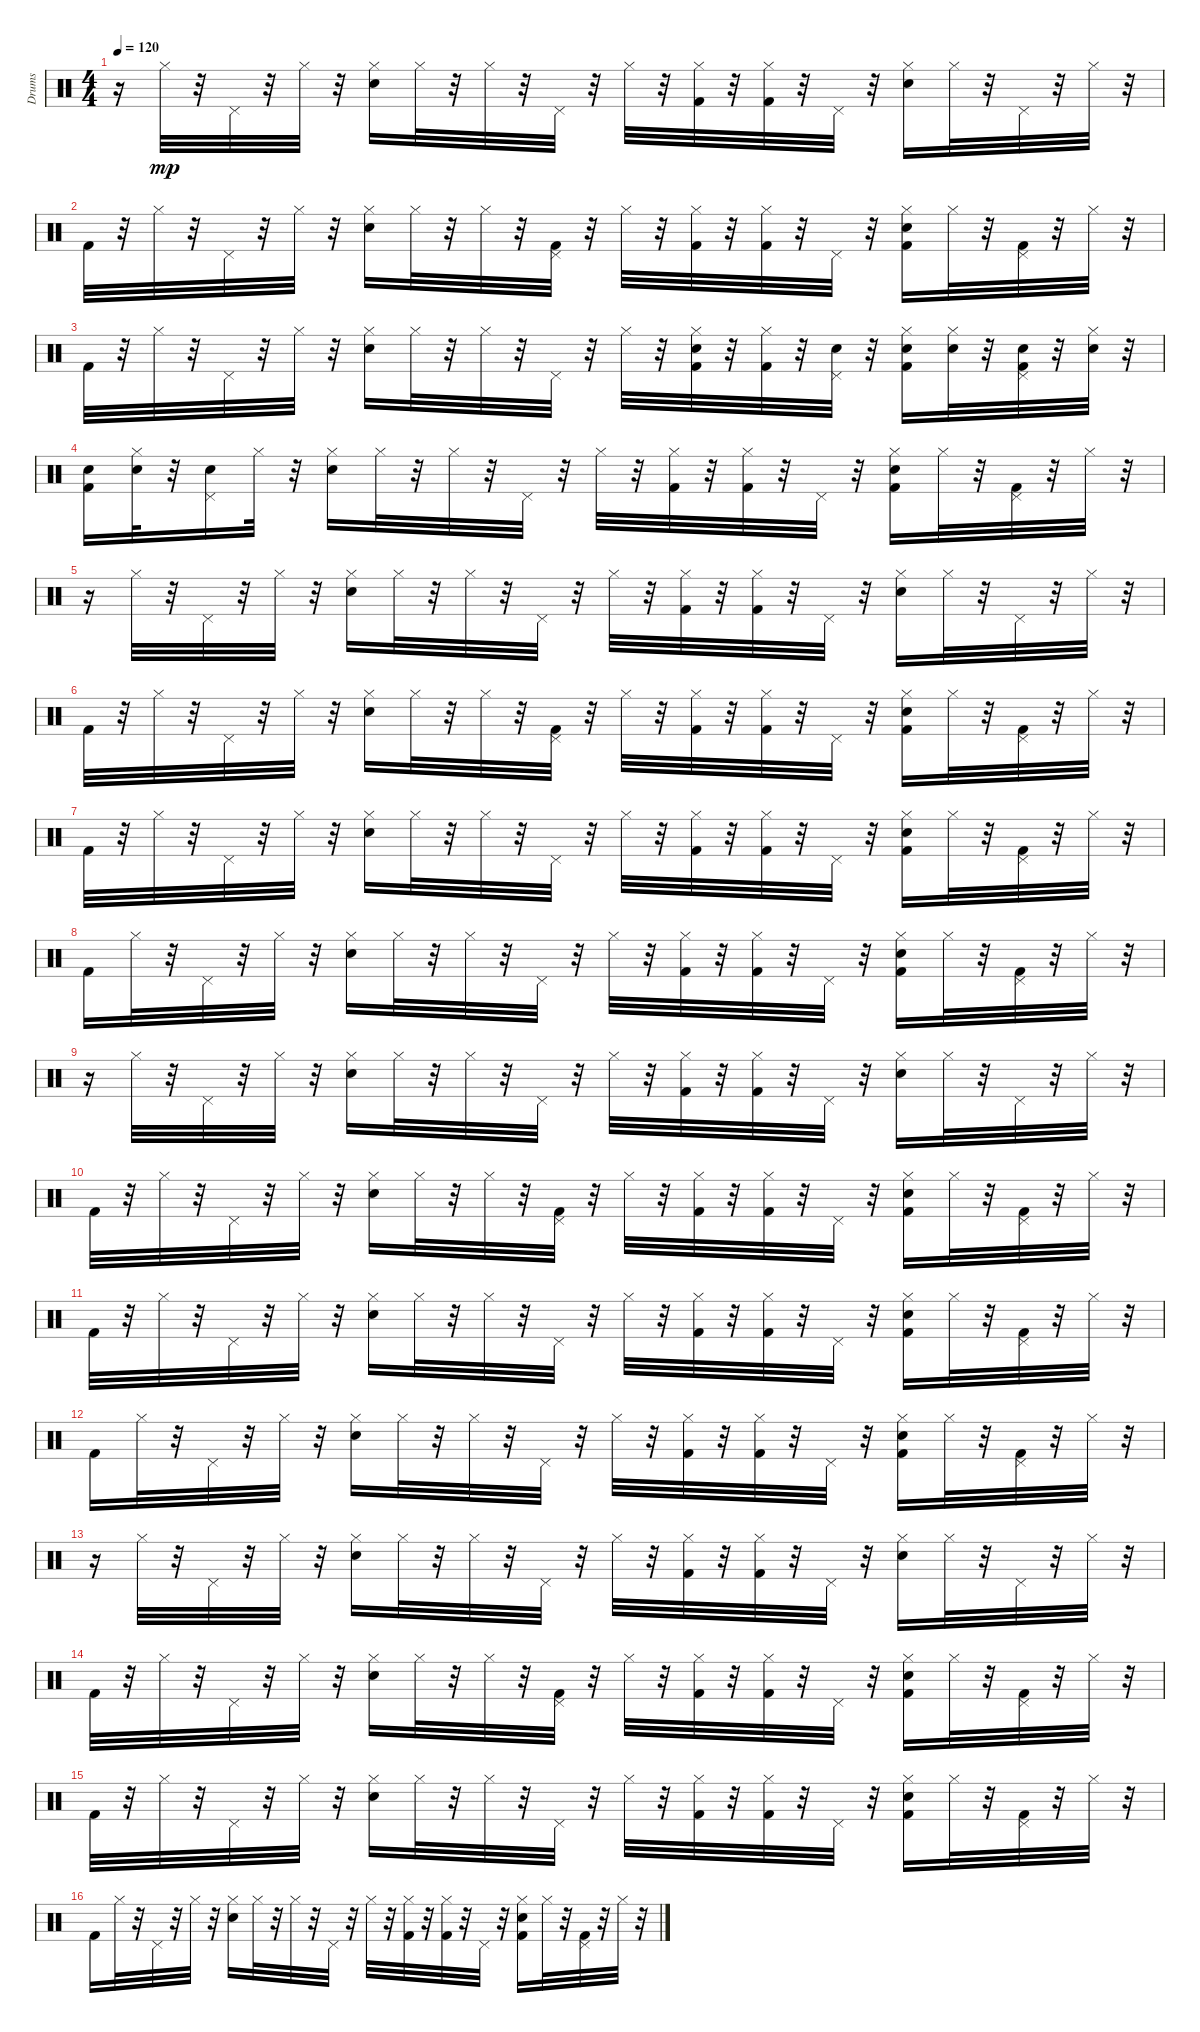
\track ("Drums" "Drums") {instrument percussion}
\staff {score}
\articulation defaults
\ts (4 4)
\tempo 120
\clef neutral
\ks c
r.16{dy mp} "Hi-Hat (closed)".32 r.32 "Pedal Hi-Hat (hit)".32 r.32 "Hi-Hat (closed)".32 r.32 ("Hi-Hat (closed)" "Snare (hit) 2").16 "Hi-Hat (closed)".32 r.32 "Hi-Hat (closed)".32 r.32 "Pedal Hi-Hat (hit)".32 r.32 "Hi-Hat (closed)".32 r.32 ("Hi-Hat (closed)" "Kick (hit) 2").32 r.32 ("Hi-Hat (closed)" "Kick (hit) 2").32 r.32 "Pedal Hi-Hat (hit)".32 r.32 ("Hi-Hat (closed)" "Snare (hit) 2").16 "Hi-Hat (closed)".32 r.32 "Pedal Hi-Hat (hit)".32 r.32 "Hi-Hat (closed)".32 r.32 |
"Kick (hit) 2".32 r.32 "Hi-Hat (closed)".32 r.32 "Pedal Hi-Hat (hit)".32 r.32 "Hi-Hat (closed)".32 r.32 ("Hi-Hat (closed)" "Snare (hit) 2").16 "Hi-Hat (closed)".32 r.32 "Hi-Hat (closed)".32 r.32 ("Pedal Hi-Hat (hit)" "Kick (hit) 2").32 r.32 "Hi-Hat (closed)".32 r.32 ("Hi-Hat (closed)" "Kick (hit) 2").32 r.32 ("Hi-Hat (closed)" "Kick (hit) 2").32 r.32 "Pedal Hi-Hat (hit)".32 r.32 ("Hi-Hat (closed)" "Kick (hit) 2" "Snare (hit) 2").16 "Hi-Hat (closed)".32 r.32 ("Kick (hit) 2" "Pedal Hi-Hat (hit)").32 r.32 "Hi-Hat (closed)".32 r.32 |
"Kick (hit) 2".32 r.32 "Hi-Hat (closed)".32 r.32 "Pedal Hi-Hat (hit)".32 r.32 "Hi-Hat (closed)".32 r.32 ("Hi-Hat (closed)" "Snare (hit) 2").16 "Hi-Hat (closed)".32 r.32 "Hi-Hat (closed)".32 r.32 "Pedal Hi-Hat (hit)".32 r.32 "Hi-Hat (closed)".32 r.32 ("Hi-Hat (closed)" "Kick (hit) 2" "Hand Clap (hit)").32 r.32 ("Hi-Hat (closed)" "Kick (hit) 2").32 r.32 ("Pedal Hi-Hat (hit)" "Hand Clap (hit)").32 r.32 ("Hi-Hat (closed)" "Kick (hit) 2" "Snare (hit) 2").16 ("Hi-Hat (closed)" "Hand Clap (hit)").32 r.32 ("Pedal Hi-Hat (hit)" "Kick (hit) 2" "Hand Clap (hit)").32 r.32 ("Hi-Hat (closed)" "Hand Clap (hit)").32 r.32 |
("Kick (hit) 2" "Hand Clap (hit)").16 ("Hi-Hat (closed)" "Hand Clap (hit)").32 r.32 ("Pedal Hi-Hat (hit)" "Hand Clap (hit)").16 "Hi-Hat (closed)".32 r.32 ("Hi-Hat (closed)" "Snare (hit) 2").16 "Hi-Hat (closed)".32 r.32 "Hi-Hat (closed)".32 r.32 "Pedal Hi-Hat (hit)".32 r.32 "Hi-Hat (closed)".32 r.32 ("Hi-Hat (closed)" "Kick (hit) 2").32 r.32 ("Hi-Hat (closed)" "Kick (hit) 2").32 r.32 "Pedal Hi-Hat (hit)".32 r.32 ("Hi-Hat (closed)" "Snare (hit) 2" "Kick (hit) 2").16 "Hi-Hat (closed)".32 r.32 ("Pedal Hi-Hat (hit)" "Kick (hit) 2").32 r.32 "Hi-Hat (closed)".32 r.32 |
r.16 "Hi-Hat (closed)".32 r.32 "Pedal Hi-Hat (hit)".32 r.32 "Hi-Hat (closed)".32 r.32 ("Hi-Hat (closed)" "Snare (hit) 2").16 "Hi-Hat (closed)".32 r.32 "Hi-Hat (closed)".32 r.32 "Pedal Hi-Hat (hit)".32 r.32 "Hi-Hat (closed)".32 r.32 ("Hi-Hat (closed)" "Kick (hit) 2").32 r.32 ("Hi-Hat (closed)" "Kick (hit) 2").32 r.32 "Pedal Hi-Hat (hit)".32 r.32 ("Hi-Hat (closed)" "Snare (hit) 2").16 "Hi-Hat (closed)".32 r.32 "Pedal Hi-Hat (hit)".32 r.32 "Hi-Hat (closed)".32 r.32 |
"Kick (hit) 2".32 r.32 "Hi-Hat (closed)".32 r.32 "Pedal Hi-Hat (hit)".32 r.32 "Hi-Hat (closed)".32 r.32 ("Hi-Hat (closed)" "Snare (hit) 2").16 "Hi-Hat (closed)".32 r.32 "Hi-Hat (closed)".32 r.32 ("Pedal Hi-Hat (hit)" "Kick (hit) 2").32 r.32 "Hi-Hat (closed)".32 r.32 ("Hi-Hat (closed)" "Kick (hit) 2").32 r.32 ("Hi-Hat (closed)" "Kick (hit) 2").32 r.32 "Pedal Hi-Hat (hit)".32 r.32 ("Hi-Hat (closed)" "Kick (hit) 2" "Snare (hit) 2").16 "Hi-Hat (closed)".32 r.32 ("Kick (hit) 2" "Pedal Hi-Hat (hit)").32 r.32 "Hi-Hat (closed)".32 r.32 |
"Kick (hit) 2".32 r.32 "Hi-Hat (closed)".32 r.32 "Pedal Hi-Hat (hit)".32 r.32 "Hi-Hat (closed)".32 r.32 ("Hi-Hat (closed)" "Snare (hit) 2").16 "Hi-Hat (closed)".32 r.32 "Hi-Hat (closed)".32 r.32 "Pedal Hi-Hat (hit)".32 r.32 "Hi-Hat (closed)".32 r.32 ("Hi-Hat (closed)" "Kick (hit) 2").32 r.32 ("Hi-Hat (closed)" "Kick (hit) 2").32 r.32 "Pedal Hi-Hat (hit)".32 r.32 ("Hi-Hat (closed)" "Kick (hit) 2" "Snare (hit) 2").16 "Hi-Hat (closed)".32 r.32 ("Pedal Hi-Hat (hit)" "Kick (hit) 2").32 r.32 "Hi-Hat (closed)".32 r.32 |
"Kick (hit) 2".16 "Hi-Hat (closed)".32 r.32 "Pedal Hi-Hat (hit)".32 r.32 "Hi-Hat (closed)".32 r.32 ("Hi-Hat (closed)" "Snare (hit) 2").16 "Hi-Hat (closed)".32 r.32 "Hi-Hat (closed)".32 r.32 "Pedal Hi-Hat (hit)".32 r.32 "Hi-Hat (closed)".32 r.32 ("Hi-Hat (closed)" "Kick (hit) 2").32 r.32 ("Hi-Hat (closed)" "Kick (hit) 2").32 r.32 "Pedal Hi-Hat (hit)".32 r.32 ("Hi-Hat (closed)" "Snare (hit) 2" "Kick (hit) 2").16 "Hi-Hat (closed)".32 r.32 ("Pedal Hi-Hat (hit)" "Kick (hit) 2").32 r.32 "Hi-Hat (closed)".32 r.32 |
r.16 "Hi-Hat (closed)".32 r.32 "Pedal Hi-Hat (hit)".32 r.32 "Hi-Hat (closed)".32 r.32 ("Hi-Hat (closed)" "Snare (hit) 2").16 "Hi-Hat (closed)".32 r.32 "Hi-Hat (closed)".32 r.32 "Pedal Hi-Hat (hit)".32 r.32 "Hi-Hat (closed)".32 r.32 ("Hi-Hat (closed)" "Kick (hit) 2").32 r.32 ("Hi-Hat (closed)" "Kick (hit) 2").32 r.32 "Pedal Hi-Hat (hit)".32 r.32 ("Hi-Hat (closed)" "Snare (hit) 2").16 "Hi-Hat (closed)".32 r.32 "Pedal Hi-Hat (hit)".32 r.32 "Hi-Hat (closed)".32 r.32 |
"Kick (hit) 2".32 r.32 "Hi-Hat (closed)".32 r.32 "Pedal Hi-Hat (hit)".32 r.32 "Hi-Hat (closed)".32 r.32 ("Hi-Hat (closed)" "Snare (hit) 2").16 "Hi-Hat (closed)".32 r.32 "Hi-Hat (closed)".32 r.32 ("Pedal Hi-Hat (hit)" "Kick (hit) 2").32 r.32 "Hi-Hat (closed)".32 r.32 ("Hi-Hat (closed)" "Kick (hit) 2").32 r.32 ("Hi-Hat (closed)" "Kick (hit) 2").32 r.32 "Pedal Hi-Hat (hit)".32 r.32 ("Hi-Hat (closed)" "Kick (hit) 2" "Snare (hit) 2").16 "Hi-Hat (closed)".32 r.32 ("Kick (hit) 2" "Pedal Hi-Hat (hit)").32 r.32 "Hi-Hat (closed)".32 r.32 |
"Kick (hit) 2".32 r.32 "Hi-Hat (closed)".32 r.32 "Pedal Hi-Hat (hit)".32 r.32 "Hi-Hat (closed)".32 r.32 ("Hi-Hat (closed)" "Snare (hit) 2").16 "Hi-Hat (closed)".32 r.32 "Hi-Hat (closed)".32 r.32 "Pedal Hi-Hat (hit)".32 r.32 "Hi-Hat (closed)".32 r.32 ("Hi-Hat (closed)" "Kick (hit) 2").32 r.32 ("Hi-Hat (closed)" "Kick (hit) 2").32 r.32 "Pedal Hi-Hat (hit)".32 r.32 ("Hi-Hat (closed)" "Kick (hit) 2" "Snare (hit) 2").16 "Hi-Hat (closed)".32 r.32 ("Pedal Hi-Hat (hit)" "Kick (hit) 2").32 r.32 "Hi-Hat (closed)".32 r.32 |
"Kick (hit) 2".16 "Hi-Hat (closed)".32 r.32 "Pedal Hi-Hat (hit)".32 r.32 "Hi-Hat (closed)".32 r.32 ("Hi-Hat (closed)" "Snare (hit) 2").16 "Hi-Hat (closed)".32 r.32 "Hi-Hat (closed)".32 r.32 "Pedal Hi-Hat (hit)".32 r.32 "Hi-Hat (closed)".32 r.32 ("Hi-Hat (closed)" "Kick (hit) 2").32 r.32 ("Hi-Hat (closed)" "Kick (hit) 2").32 r.32 "Pedal Hi-Hat (hit)".32 r.32 ("Hi-Hat (closed)" "Snare (hit) 2" "Kick (hit) 2").16 "Hi-Hat (closed)".32 r.32 ("Pedal Hi-Hat (hit)" "Kick (hit) 2").32 r.32 "Hi-Hat (closed)".32 r.32 |
r.16 "Hi-Hat (closed)".32 r.32 "Pedal Hi-Hat (hit)".32 r.32 "Hi-Hat (closed)".32 r.32 ("Hi-Hat (closed)" "Snare (hit) 2").16 "Hi-Hat (closed)".32 r.32 "Hi-Hat (closed)".32 r.32 "Pedal Hi-Hat (hit)".32 r.32 "Hi-Hat (closed)".32 r.32 ("Hi-Hat (closed)" "Kick (hit) 2").32 r.32 ("Hi-Hat (closed)" "Kick (hit) 2").32 r.32 "Pedal Hi-Hat (hit)".32 r.32 ("Hi-Hat (closed)" "Snare (hit) 2").16 "Hi-Hat (closed)".32 r.32 "Pedal Hi-Hat (hit)".32 r.32 "Hi-Hat (closed)".32 r.32 |
"Kick (hit) 2".32 r.32 "Hi-Hat (closed)".32 r.32 "Pedal Hi-Hat (hit)".32 r.32 "Hi-Hat (closed)".32 r.32 ("Hi-Hat (closed)" "Snare (hit) 2").16 "Hi-Hat (closed)".32 r.32 "Hi-Hat (closed)".32 r.32 ("Pedal Hi-Hat (hit)" "Kick (hit) 2").32 r.32 "Hi-Hat (closed)".32 r.32 ("Hi-Hat (closed)" "Kick (hit) 2").32 r.32 ("Hi-Hat (closed)" "Kick (hit) 2").32 r.32 "Pedal Hi-Hat (hit)".32 r.32 ("Hi-Hat (closed)" "Kick (hit) 2" "Snare (hit) 2").16 "Hi-Hat (closed)".32 r.32 ("Kick (hit) 2" "Pedal Hi-Hat (hit)").32 r.32 "Hi-Hat (closed)".32 r.32 |
"Kick (hit) 2".32 r.32 "Hi-Hat (closed)".32 r.32 "Pedal Hi-Hat (hit)".32 r.32 "Hi-Hat (closed)".32 r.32 ("Hi-Hat (closed)" "Snare (hit) 2").16 "Hi-Hat (closed)".32 r.32 "Hi-Hat (closed)".32 r.32 "Pedal Hi-Hat (hit)".32 r.32 "Hi-Hat (closed)".32 r.32 ("Hi-Hat (closed)" "Kick (hit) 2").32 r.32 ("Hi-Hat (closed)" "Kick (hit) 2").32 r.32 "Pedal Hi-Hat (hit)".32 r.32 ("Hi-Hat (closed)" "Kick (hit) 2" "Snare (hit) 2").16 "Hi-Hat (closed)".32 r.32 ("Pedal Hi-Hat (hit)" "Kick (hit) 2").32 r.32 "Hi-Hat (closed)".32 r.32 |
"Kick (hit) 2".16 "Hi-Hat (closed)".32 r.32 "Pedal Hi-Hat (hit)".32 r.32 "Hi-Hat (closed)".32 r.32 ("Hi-Hat (closed)" "Snare (hit) 2").16 "Hi-Hat (closed)".32 r.32 "Hi-Hat (closed)".32 r.32 "Pedal Hi-Hat (hit)".32 r.32 "Hi-Hat (closed)".32 r.32 ("Hi-Hat (closed)" "Kick (hit) 2").32 r.32 ("Hi-Hat (closed)" "Kick (hit) 2").32 r.32 "Pedal Hi-Hat (hit)".32 r.32 ("Hi-Hat (closed)" "Snare (hit) 2" "Kick (hit) 2").16 "Hi-Hat (closed)".32 r.32 ("Pedal Hi-Hat (hit)" "Kick (hit) 2").32 r.32 "Hi-Hat (closed)".32 r.32
